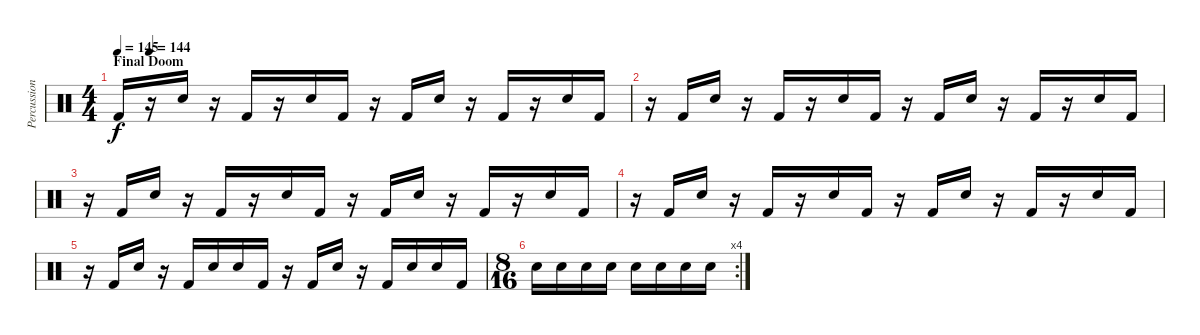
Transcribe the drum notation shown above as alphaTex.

\track ("Percussions" "Percussion") {instrument percussion}
\staff {score}
\articulation defaults
\ts (4 4)
\section ("" "Final Doom")
\tempo 145
\tempo (144 0.0625)
\clef neutral
\ks c "Kick (hit) 2".16{dy f}
r.16 "Electric Snare (hit)".16 r.16 "Kick (hit) 2".16 r.16 "Electric Snare (hit)".16 "Kick (hit) 2".16 r.16 "Kick (hit) 2".16 "Electric Snare (hit)".16 r.16 "Kick (hit) 2".16 r.16 "Electric Snare (hit)".16 "Kick (hit) 2".16 |
r.16 "Kick (hit) 2".16 "Electric Snare (hit)".16 r.16 "Kick (hit) 2".16 r.16 "Electric Snare (hit)".16 "Kick (hit) 2".16 r.16 "Kick (hit) 2".16 "Electric Snare (hit)".16 r.16 "Kick (hit) 2".16 r.16 "Electric Snare (hit)".16 "Kick (hit) 2".16 |
r.16 "Kick (hit) 2".16 "Electric Snare (hit)".16 r.16 "Kick (hit) 2".16 r.16 "Electric Snare (hit)".16 "Kick (hit) 2".16 r.16 "Kick (hit) 2".16 "Electric Snare (hit)".16 r.16 "Kick (hit) 2".16 r.16 "Electric Snare (hit)".16 "Kick (hit) 2".16 |
r.16 "Kick (hit) 2".16 "Electric Snare (hit)".16 r.16 "Kick (hit) 2".16 r.16 "Electric Snare (hit)".16 "Kick (hit) 2".16 r.16 "Kick (hit) 2".16 "Electric Snare (hit)".16 r.16 "Kick (hit) 2".16 r.16 "Electric Snare (hit)".16 "Kick (hit) 2".16 |
r.16 "Kick (hit) 2".16 "Electric Snare (hit)".16 r.16 "Kick (hit) 2".16 "Electric Snare (hit)".16 "Electric Snare (hit)".16 "Kick (hit) 2".16 r.16 "Kick (hit) 2".16 "Electric Snare (hit)".16 r.16 "Kick (hit) 2".16 "Electric Snare (hit)".16 "Electric Snare (hit)".16 "Kick (hit) 2".16 |
\rc 4
\ts (8 16)
"Electric Snare (hit)".16 "Electric Snare (hit)".16 "Electric Snare (hit)".16 "Electric Snare (hit)".16 "Electric Snare (hit)".16 "Electric Snare (hit)".16 "Electric Snare (hit)".16 "Electric Snare (hit)".16
